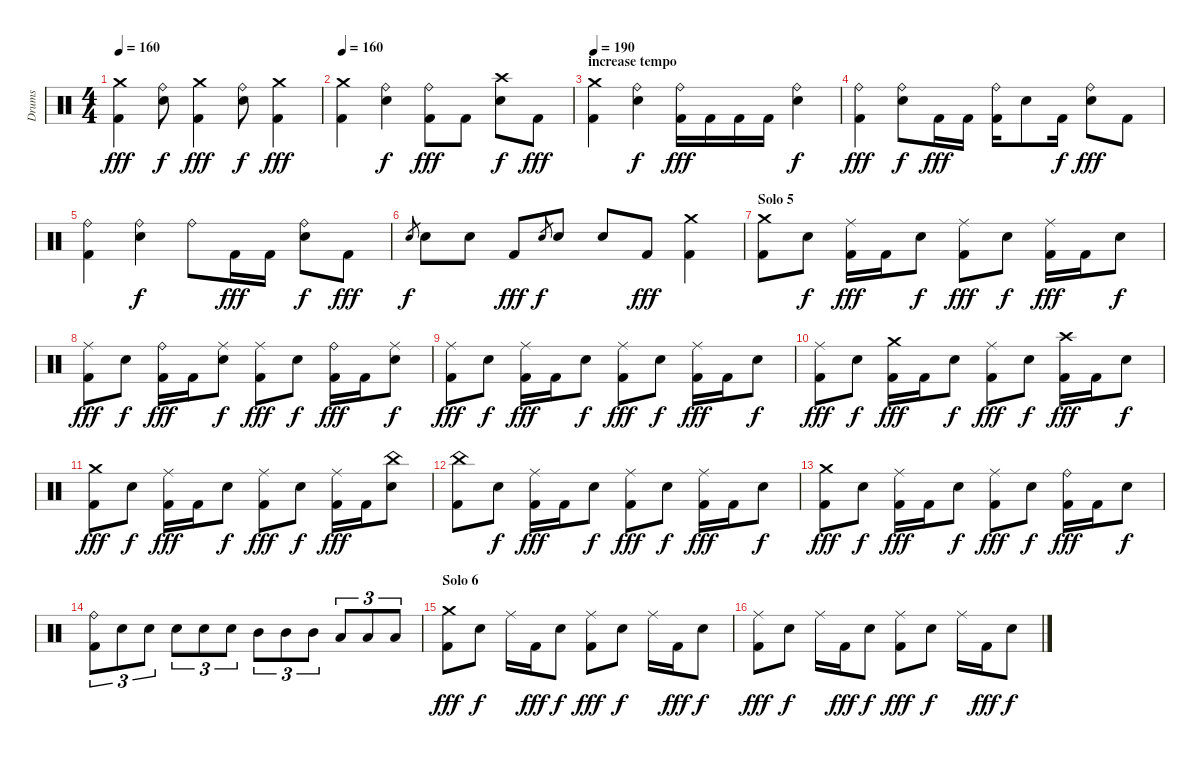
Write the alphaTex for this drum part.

\track ("Drums" "Drums") {instrument percussion}
\staff {score}
\articulation defaults
\ts (4 4)
\tempo 160
\clef neutral
\ks c
("Crash medium (hit)" "Kick (hit) 2").4{dy fff} ("Ride (bell)" "Snare (hit) 2").8{dy f} ("Crash medium (hit)" "Kick (hit) 2").4{dy fff} ("Ride (bell)" "Snare (hit) 2").8{dy f} ("Crash medium (hit)" "Kick (hit) 2").4{dy fff} |
\tempo 160
("Crash medium (hit)" "Kick (hit) 2").4 ("Ride (bell)" "Snare (hit) 2").4{dy f} ("Ride (bell)" "Kick (hit) 2").8{dy fff} "Kick (hit) 2".8 ("Crash high (hit)" "Snare (hit) 2").8{dy f} "Kick (hit) 2".8{dy fff} |
\section ("" "increase tempo")
\tempo 190
("Crash medium (hit)" "Kick (hit) 2").4 ("Ride (bell)" "Snare (hit) 2").4{dy f} ("Ride (bell)" "Kick (hit) 2").16{dy fff} "Kick (hit) 2".16 "Kick (hit) 2".16 "Kick (hit) 2".16 ("Ride (bell)" "Snare (hit) 2").4{dy f} |
("Ride (bell)" "Kick (hit) 2").4{dy fff} ("Ride (bell)" "Snare (hit) 2").8{dy f} "Kick (hit) 2".16{dy fff} "Kick (hit) 2".16 ("Ride (bell)" "Kick (hit) 2").16 "Snare (hit) 2".8 "Kick (hit) 2".16{dy f} ("Ride (bell)" "Snare (hit) 2").8{dy fff} "Kick (hit) 2".8 |
("Ride (bell)" "Kick (hit) 2").4 ("Ride (bell)" "Snare (hit) 2").4{dy f} "Ride (bell)".8 "Kick (hit) 2".16{dy fff} "Kick (hit) 2".16 ("Ride (bell)" "Snare (hit) 2").8{dy f} "Kick (hit) 2".8{dy fff} |
"Snare (hit) 2".8{gr dy f} "Snare (hit) 2".8 "Snare (hit) 2".8 "Kick (hit) 2".8{dy fff} "Snare (hit) 2".8{gr dy f} "Snare (hit) 2".8 "Snare (hit) 2".8 "Kick (hit) 2".8{dy fff} ("Crash medium (hit)" "Kick (hit) 2").4 |
\section ("" "Solo 5")
("Crash medium (hit)" "Kick (hit) 2").8 "Snare (hit) 2".8{dy f} ("Ride (middle)" "Kick (hit) 2").16{dy fff} "Kick (hit) 2".16 "Snare (hit) 2".8{dy f} ("Ride (middle)" "Kick (hit) 2").8{dy fff} "Snare (hit) 2".8{dy f} ("Ride (middle)" "Kick (hit) 2").16{dy fff} "Kick (hit) 2".16 "Snare (hit) 2".8{dy f} |
("Ride (middle)" "Kick (hit) 2").8{dy fff} "Snare (hit) 2".8{dy f} ("Ride (bell)" "Kick (hit) 2").16{dy fff} "Kick (hit) 2".16 ("Ride (middle)" "Snare (hit) 2").8{dy f} ("Ride (middle)" "Kick (hit) 2").8{dy fff} "Snare (hit) 2".8{dy f} ("Ride (bell)" "Kick (hit) 2").16{dy fff} "Kick (hit) 2".16 ("Ride (middle)" "Snare (hit) 2").8{dy f} |
("Ride (middle)" "Kick (hit) 2").8{dy fff} "Snare (hit) 2".8{dy f} ("Ride (middle)" "Kick (hit) 2").16{dy fff} "Kick (hit) 2".16 "Snare (hit) 2".8{dy f} ("Ride (middle)" "Kick (hit) 2").8{dy fff} "Snare (hit) 2".8{dy f} ("Ride (middle)" "Kick (hit) 2").16{dy fff} "Kick (hit) 2".16 "Snare (hit) 2".8{dy f} |
("Ride (middle)" "Kick (hit) 2").8{dy fff} "Snare (hit) 2".8{dy f} ("Crash medium (hit)" "Kick (hit) 2").16{dy fff} "Kick (hit) 2".16 "Snare (hit) 2".8{dy f} ("Ride (middle)" "Kick (hit) 2").8{dy fff} "Snare (hit) 2".8{dy f} ("Crash high (hit)" "Kick (hit) 2").16{dy fff} "Kick (hit) 2".16 "Snare (hit) 2".8{dy f} |
("Crash medium (hit)" "Kick (hit) 2").8{dy fff} "Snare (hit) 2".8{dy f} ("Ride (middle)" "Kick (hit) 2").16{dy fff} "Kick (hit) 2".16 "Snare (hit) 2".8{dy f} ("Ride (middle)" "Kick (hit) 2").8{dy fff} "Snare (hit) 2".8{dy f} ("Ride (middle)" "Kick (hit) 2").16{dy fff} "Kick (hit) 2".16 ("China (hit)" "Snare (hit) 2").8 |
("China (hit)" "Kick (hit) 2").8 "Snare (hit) 2".8{dy f} ("Ride (middle)" "Kick (hit) 2").16{dy fff} "Kick (hit) 2".16 "Snare (hit) 2".8{dy f} ("Ride (middle)" "Kick (hit) 2").8{dy fff} "Snare (hit) 2".8{dy f} ("Ride (middle)" "Kick (hit) 2").16{dy fff} "Kick (hit) 2".16 "Snare (hit) 2".8{dy f} |
("Crash medium (hit)" "Kick (hit) 2").8{dy fff} "Snare (hit) 2".8{dy f} ("Ride (middle)" "Kick (hit) 2").16{dy fff} "Kick (hit) 2".16 "Snare (hit) 2".8{dy f} ("Ride (middle)" "Kick (hit) 2").8{dy fff} "Snare (hit) 2".8{dy f} ("Ride (bell)" "Kick (hit) 2").16{dy fff} "Kick (hit) 2".16 "Snare (hit) 2".8{dy f} |
("Ride (bell)" "Kick (hit) 2").8{tu (3 2)} "Snare (hit) 2".8{tu (3 2)} "Snare (hit) 2".8{tu (3 2)} "Snare (hit) 2".8{tu (3 2)} "Snare (hit) 2".8{tu (3 2)} "Snare (hit) 2".8{tu (3 2)} "Mid Tom (hit)".8{tu (3 2)} "Mid Tom (hit)".8{tu (3 2)} "Mid Tom (hit)".8{tu (3 2)} "Low Tom (hit)".8{tu (3 2)} "Low Tom (hit)".8{tu (3 2)} "Low Tom (hit)".8{tu (3 2)} |
\section ("" "Solo 6")
("Crash medium (hit)" "Kick (hit) 2").8{dy fff} "Snare (hit) 2".8{dy f} "Ride (middle)".16 "Kick (hit) 2".16{dy fff} "Snare (hit) 2".8{dy f} ("Ride (middle)" "Kick (hit) 2").8{dy fff} "Snare (hit) 2".8{dy f} "Ride (middle)".16 "Kick (hit) 2".16{dy fff} "Snare (hit) 2".8{dy f} |
("Ride (middle)" "Kick (hit) 2").8{dy fff} "Snare (hit) 2".8{dy f} "Ride (middle)".16 "Kick (hit) 2".16{dy fff} "Snare (hit) 2".8{dy f} ("Ride (middle)" "Kick (hit) 2").8{dy fff} "Snare (hit) 2".8{dy f} "Ride (middle)".16 "Kick (hit) 2".16{dy fff} "Snare (hit) 2".8{dy f}
